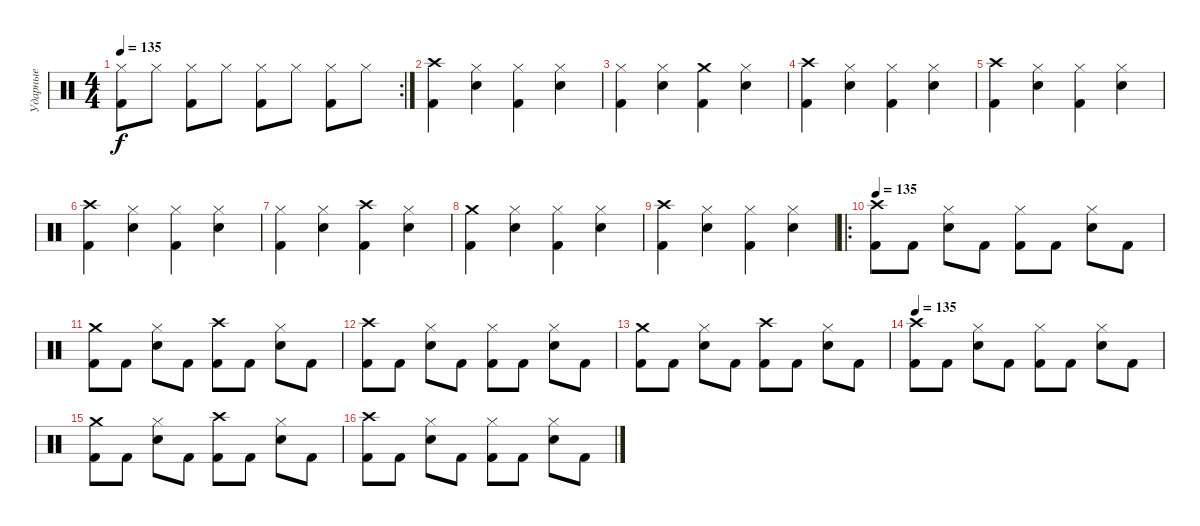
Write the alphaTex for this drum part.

\track ("Ударные" "Ударные") {solo instrument percussion}
\staff {score}
\articulation defaults
\rc 2
\ts (4 4)
\tempo 135
\clef neutral
\ks c
("Kick (hit) 2" "Hi-Hat (closed)").8{dy f} "Hi-Hat (closed)".8 ("Kick (hit) 2" "Hi-Hat (closed)").8 "Hi-Hat (closed)".8 ("Kick (hit) 2" "Hi-Hat (closed)").8 "Hi-Hat (closed)".8 ("Kick (hit) 2" "Hi-Hat (closed)").8 "Hi-Hat (closed)".8 |
("Kick (hit) 2" "Crash high (hit)").4 ("Snare (hit) 2" "Hi-Hat (closed)").4 ("Kick (hit) 2" "Hi-Hat (closed)").4 ("Snare (hit) 2" "Hi-Hat (closed)").4 |
("Kick (hit) 2" "Hi-Hat (closed)").4 ("Snare (hit) 2" "Hi-Hat (closed)").4 ("Kick (hit) 2" "Crash medium (hit)").4 ("Snare (hit) 2" "Hi-Hat (closed)").4 |
("Kick (hit) 2" "Crash high (hit)").4 ("Snare (hit) 2" "Hi-Hat (closed)").4 ("Kick (hit) 2" "Hi-Hat (closed)").4 ("Snare (hit) 2" "Hi-Hat (closed)").4 |
("Kick (hit) 2" "Crash high (hit)").4 ("Snare (hit) 2" "Hi-Hat (closed)").4 ("Kick (hit) 2" "Hi-Hat (closed)").4 ("Snare (hit) 2" "Hi-Hat (closed)").4 |
("Kick (hit) 2" "Crash high (hit)").4 ("Snare (hit) 2" "Hi-Hat (closed)").4 ("Kick (hit) 2" "Hi-Hat (closed)").4 ("Snare (hit) 2" "Hi-Hat (closed)").4 |
("Kick (hit) 2" "Hi-Hat (closed)").4 ("Snare (hit) 2" "Hi-Hat (closed)").4 ("Kick (hit) 2" "Crash high (hit)").4 ("Snare (hit) 2" "Hi-Hat (closed)").4 |
("Kick (hit) 2" "Crash medium (hit)").4 ("Snare (hit) 2" "Hi-Hat (closed)").4 ("Kick (hit) 2" "Hi-Hat (closed)").4 ("Snare (hit) 2" "Hi-Hat (closed)").4 |
("Kick (hit) 2" "Crash high (hit)").4 ("Snare (hit) 2" "Hi-Hat (closed)").4 ("Kick (hit) 2" "Hi-Hat (closed)").4 ("Snare (hit) 2" "Hi-Hat (closed)").4 |
\ro
\tempo 135
("Kick (hit) 2" "Crash high (hit)").8 "Kick (hit) 2".8 ("Snare (hit) 2" "Hi-Hat (closed)").8 "Kick (hit) 2".8 ("Kick (hit) 2" "Hi-Hat (closed)").8 "Kick (hit) 2".8 ("Snare (hit) 2" "Hi-Hat (closed)").8 "Kick (hit) 2".8 |
("Kick (hit) 2" "Crash medium (hit)").8 "Kick (hit) 2".8 ("Snare (hit) 2" "Hi-Hat (closed)").8 "Kick (hit) 2".8 ("Kick (hit) 2" "Crash high (hit)").8 "Kick (hit) 2".8 ("Snare (hit) 2" "Hi-Hat (closed)").8 "Kick (hit) 2".8 |
("Kick (hit) 2" "Crash high (hit)").8 "Kick (hit) 2".8 ("Snare (hit) 2" "Hi-Hat (closed)").8 "Kick (hit) 2".8 ("Kick (hit) 2" "Hi-Hat (closed)").8 "Kick (hit) 2".8 ("Snare (hit) 2" "Hi-Hat (closed)").8 "Kick (hit) 2".8 |
("Kick (hit) 2" "Crash medium (hit)").8 "Kick (hit) 2".8 ("Snare (hit) 2" "Hi-Hat (closed)").8 "Kick (hit) 2".8 ("Kick (hit) 2" "Crash high (hit)").8 "Kick (hit) 2".8 ("Snare (hit) 2" "Hi-Hat (closed)").8 "Kick (hit) 2".8 |
\tempo 135
("Kick (hit) 2" "Crash high (hit)").8 "Kick (hit) 2".8 ("Snare (hit) 2" "Hi-Hat (closed)").8 "Kick (hit) 2".8 ("Kick (hit) 2" "Hi-Hat (closed)").8 "Kick (hit) 2".8 ("Snare (hit) 2" "Hi-Hat (closed)").8 "Kick (hit) 2".8 |
("Kick (hit) 2" "Crash medium (hit)").8 "Kick (hit) 2".8 ("Snare (hit) 2" "Hi-Hat (closed)").8 "Kick (hit) 2".8 ("Kick (hit) 2" "Crash high (hit)").8 "Kick (hit) 2".8 ("Snare (hit) 2" "Hi-Hat (closed)").8 "Kick (hit) 2".8 |
("Kick (hit) 2" "Crash high (hit)").8 "Kick (hit) 2".8 ("Snare (hit) 2" "Hi-Hat (closed)").8 "Kick (hit) 2".8 ("Kick (hit) 2" "Hi-Hat (closed)").8 "Kick (hit) 2".8 ("Snare (hit) 2" "Hi-Hat (closed)").8 "Kick (hit) 2".8
